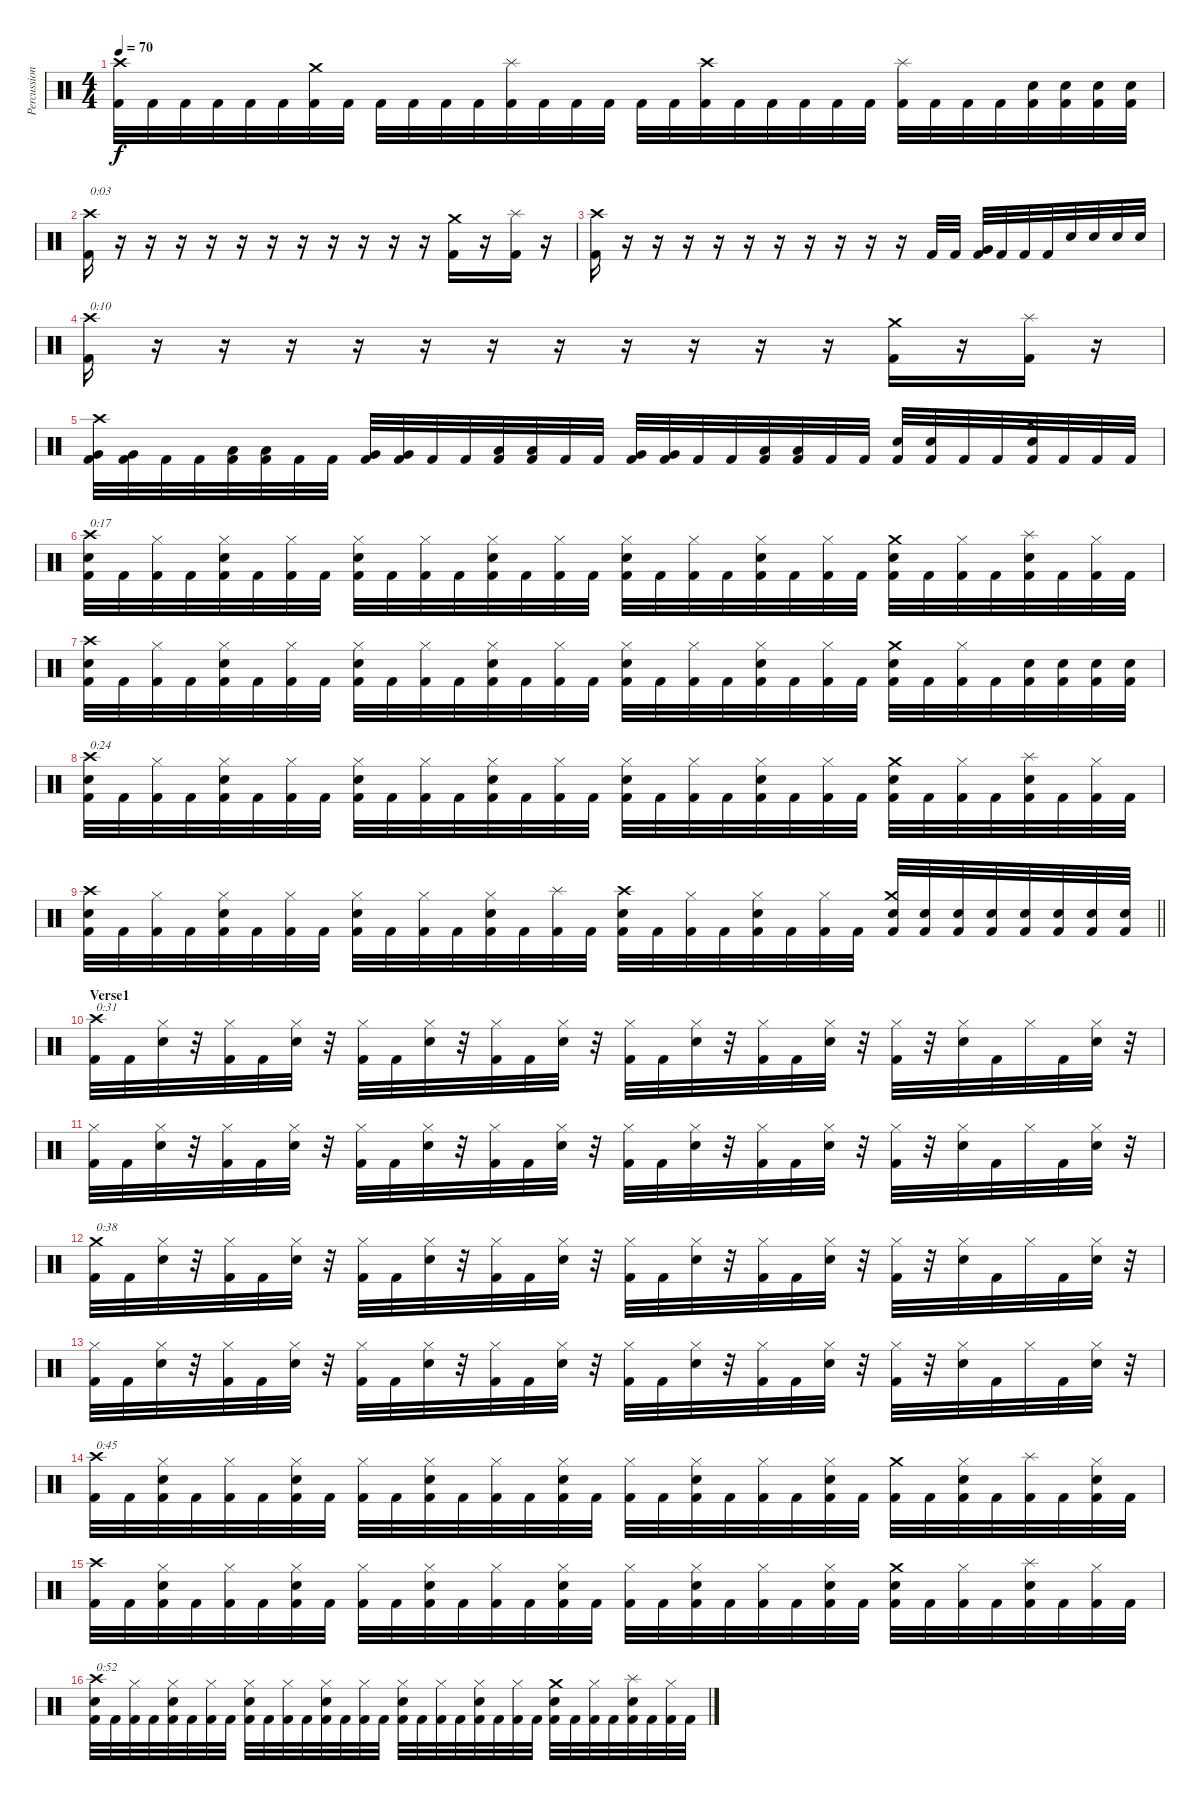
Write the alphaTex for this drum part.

\track ("Percussion" "Percussion") {instrument percussion}
\staff {score}
\articulation defaults
\ts (4 4)
\tempo 70
\clef neutral
\ks c
("Crash high (hit)" "Kick (hit) 2").32{dy f} "Kick (hit) 2".32 "Kick (hit) 2".32 "Kick (hit) 2".32 "Kick (hit) 2".32 "Kick (hit) 2".32 ("Crash medium (hit)" "Kick (hit) 2").32 "Kick (hit) 2".32 "Kick (hit) 2".32 "Kick (hit) 2".32 "Kick (hit) 2".32 "Kick (hit) 2".32 ("Splash (hit)" "Kick (hit) 2").32 "Kick (hit) 2".32 "Kick (hit) 2".32 "Kick (hit) 2".32 "Kick (hit) 2".32 "Kick (hit) 2".32 ("Crash high (hit)" "Kick (hit) 2").32 "Kick (hit) 2".32 "Kick (hit) 2".32 "Kick (hit) 2".32 "Kick (hit) 2".32 "Kick (hit) 2".32 ("Splash (hit)" "Kick (hit) 2").32 "Kick (hit) 2".32 "Kick (hit) 2".32 "Kick (hit) 2".32 ("Snare (hit) 2" "Kick (hit) 2").32 ("Snare (hit) 2" "Kick (hit) 2").32 ("Snare (hit) 2" "Kick (hit) 2").32 ("Snare (hit) 2" "Kick (hit) 2").32 |
("Crash high (hit)" "Kick (hit) 2").16{txt "0:03"} r.16 r.16 r.16 r.16 r.16 r.16 r.16 r.16 r.16 r.16 r.16 ("Crash medium (hit)" "Kick (hit) 2").16 r.16 ("Splash (hit)" "Kick (hit) 2").16 r.16 |
("Crash high (hit)" "Kick (hit) 2").16 r.16 r.16 r.16 r.16 r.16 r.16 r.16 r.16 r.16 r.16 "Kick (hit) 2".32 "Kick (hit) 2".32 ("Very Low Tom (hit)" "Kick (hit) 2").32 "Kick (hit) 2".32 "Kick (hit) 2".32 "Kick (hit) 2".32 "Snare (hit) 2".32 "Snare (hit) 2".32 "Snare (hit) 2".32 "Snare (hit) 2".32 |
("Crash high (hit)" "Kick (hit) 2").16{txt "0:10"} r.16 r.16 r.16 r.16 r.16 r.16 r.16 r.16 r.16 r.16 r.16 ("Crash medium (hit)" "Kick (hit) 2").16 r.16 ("Splash (hit)" "Kick (hit) 2").16 r.16 |
("Crash high (hit)" "Very Low Tom (hit)" "Kick (hit) 2").32 ("Very Low Tom (hit)" "Kick (hit) 2").32 "Kick (hit) 2".32 "Kick (hit) 2".32 ("Low Floor Tom (hit)" "Kick (hit) 2").32 ("Low Floor Tom (hit)" "Kick (hit) 2").32 "Kick (hit) 2".32 "Kick (hit) 2".32 ("Very Low Tom (hit)" "Kick (hit) 2").32 ("Very Low Tom (hit)" "Kick (hit) 2").32 "Kick (hit) 2".32 "Kick (hit) 2".32 ("Low Floor Tom (hit)" "Kick (hit) 2").32 ("Low Floor Tom (hit)" "Kick (hit) 2").32 "Kick (hit) 2".32 "Kick (hit) 2".32 ("Very Low Tom (hit)" "Kick (hit) 2").32 ("Very Low Tom (hit)" "Kick (hit) 2").32 "Kick (hit) 2".32 "Kick (hit) 2".32 ("Low Floor Tom (hit)" "Kick (hit) 2").32 ("Low Floor Tom (hit)" "Kick (hit) 2").32 "Kick (hit) 2".32 "Kick (hit) 2".32 ("Snare (hit) 2" "Kick (hit) 2").32 ("Snare (hit) 2" "Kick (hit) 2").32 "Kick (hit) 2".32 "Kick (hit) 2".32 ("Crash medium (hit)" "Snare (hit) 2" "Kick (hit) 2").32 "Kick (hit) 2".32 "Kick (hit) 2".32 "Kick (hit) 2".32 |
("Crash high (hit)" "Snare (hit) 2" "Kick (hit) 2").32{txt "0:17"} "Kick (hit) 2".32 ("Hi-Hat (closed)" "Kick (hit) 2").32 "Kick (hit) 2".32 ("Hi-Hat (closed)" "Snare (hit) 2" "Kick (hit) 2").32 "Kick (hit) 2".32 ("Hi-Hat (closed)" "Kick (hit) 2").32 "Kick (hit) 2".32 ("Hi-Hat (closed)" "Snare (hit) 2" "Kick (hit) 2").32 "Kick (hit) 2".32 ("Hi-Hat (closed)" "Kick (hit) 2").32 "Kick (hit) 2".32 ("Hi-Hat (closed)" "Snare (hit) 2" "Kick (hit) 2").32 "Kick (hit) 2".32 ("Hi-Hat (closed)" "Kick (hit) 2").32 "Kick (hit) 2".32 ("Hi-Hat (closed)" "Snare (hit) 2" "Kick (hit) 2").32 "Kick (hit) 2".32 ("Hi-Hat (closed)" "Kick (hit) 2").32 "Kick (hit) 2".32 ("Hi-Hat (closed)" "Snare (hit) 2" "Kick (hit) 2").32 "Kick (hit) 2".32 ("Hi-Hat (closed)" "Kick (hit) 2").32 "Kick (hit) 2".32 ("Crash medium (hit)" "Snare (hit) 2" "Kick (hit) 2").32 "Kick (hit) 2".32 ("Hi-Hat (closed)" "Kick (hit) 2").32 "Kick (hit) 2".32 ("Splash (hit)" "Snare (hit) 2" "Kick (hit) 2").32 "Kick (hit) 2".32 ("Hi-Hat (closed)" "Kick (hit) 2").32 "Kick (hit) 2".32 |
("Crash high (hit)" "Snare (hit) 2" "Kick (hit) 2").32 "Kick (hit) 2".32 ("Hi-Hat (closed)" "Kick (hit) 2").32 "Kick (hit) 2".32 ("Hi-Hat (closed)" "Snare (hit) 2" "Kick (hit) 2").32 "Kick (hit) 2".32 ("Hi-Hat (closed)" "Kick (hit) 2").32 "Kick (hit) 2".32 ("Hi-Hat (closed)" "Snare (hit) 2" "Kick (hit) 2").32 "Kick (hit) 2".32 ("Hi-Hat (closed)" "Kick (hit) 2").32 "Kick (hit) 2".32 ("Hi-Hat (closed)" "Snare (hit) 2" "Kick (hit) 2").32 "Kick (hit) 2".32 ("Hi-Hat (closed)" "Kick (hit) 2").32 "Kick (hit) 2".32 ("Hi-Hat (closed)" "Snare (hit) 2" "Kick (hit) 2").32 "Kick (hit) 2".32 ("Hi-Hat (closed)" "Kick (hit) 2").32 "Kick (hit) 2".32 ("Hi-Hat (closed)" "Snare (hit) 2" "Kick (hit) 2").32 "Kick (hit) 2".32 ("Hi-Hat (closed)" "Kick (hit) 2").32 "Kick (hit) 2".32 ("Crash medium (hit)" "Snare (hit) 2" "Kick (hit) 2").32 "Kick (hit) 2".32 ("Hi-Hat (closed)" "Kick (hit) 2").32 "Kick (hit) 2".32 ("Snare (hit) 2" "Kick (hit) 2").32 ("Snare (hit) 2" "Kick (hit) 2").32 ("Snare (hit) 2" "Kick (hit) 2").32 ("Snare (hit) 2" "Kick (hit) 2").32 |
("Crash high (hit)" "Snare (hit) 2" "Kick (hit) 2").32{txt "0:24"} "Kick (hit) 2".32 ("Hi-Hat (closed)" "Kick (hit) 2").32 "Kick (hit) 2".32 ("Hi-Hat (closed)" "Snare (hit) 2" "Kick (hit) 2").32 "Kick (hit) 2".32 ("Hi-Hat (closed)" "Kick (hit) 2").32 "Kick (hit) 2".32 ("Hi-Hat (closed)" "Snare (hit) 2" "Kick (hit) 2").32 "Kick (hit) 2".32 ("Hi-Hat (closed)" "Kick (hit) 2").32 "Kick (hit) 2".32 ("Hi-Hat (closed)" "Snare (hit) 2" "Kick (hit) 2").32 "Kick (hit) 2".32 ("Hi-Hat (closed)" "Kick (hit) 2").32 "Kick (hit) 2".32 ("Hi-Hat (closed)" "Snare (hit) 2" "Kick (hit) 2").32 "Kick (hit) 2".32 ("Hi-Hat (closed)" "Kick (hit) 2").32 "Kick (hit) 2".32 ("Hi-Hat (closed)" "Snare (hit) 2" "Kick (hit) 2").32 "Kick (hit) 2".32 ("Hi-Hat (closed)" "Kick (hit) 2").32 "Kick (hit) 2".32 ("Crash medium (hit)" "Snare (hit) 2" "Kick (hit) 2").32 "Kick (hit) 2".32 ("Hi-Hat (closed)" "Kick (hit) 2").32 "Kick (hit) 2".32 ("Splash (hit)" "Snare (hit) 2" "Kick (hit) 2").32 "Kick (hit) 2".32 ("Hi-Hat (closed)" "Kick (hit) 2").32 "Kick (hit) 2".32 |
\barLineRight lightlight
("Crash high (hit)" "Snare (hit) 2" "Kick (hit) 2").32 "Kick (hit) 2".32 ("Hi-Hat (closed)" "Kick (hit) 2").32 "Kick (hit) 2".32 ("Hi-Hat (closed)" "Snare (hit) 2" "Kick (hit) 2").32 "Kick (hit) 2".32 ("Hi-Hat (closed)" "Kick (hit) 2").32 "Kick (hit) 2".32 ("Hi-Hat (closed)" "Snare (hit) 2" "Kick (hit) 2").32 "Kick (hit) 2".32 ("Hi-Hat (closed)" "Kick (hit) 2").32 "Kick (hit) 2".32 ("Hi-Hat (closed)" "Snare (hit) 2" "Kick (hit) 2").32 "Kick (hit) 2".32 ("Splash (hit)" "Kick (hit) 2").32 "Kick (hit) 2".32 ("Crash high (hit)" "Snare (hit) 2" "Kick (hit) 2").32 "Kick (hit) 2".32 ("Hi-Hat (closed)" "Kick (hit) 2").32 "Kick (hit) 2".32 ("Hi-Hat (closed)" "Snare (hit) 2" "Kick (hit) 2").32 "Kick (hit) 2".32 ("Hi-Hat (closed)" "Kick (hit) 2").32 "Kick (hit) 2".32 ("Crash medium (hit)" "Snare (hit) 2" "Kick (hit) 2").32 ("Snare (hit) 2" "Kick (hit) 2").32 ("Snare (hit) 2" "Kick (hit) 2").32 ("Snare (hit) 2" "Kick (hit) 2").32 ("Snare (hit) 2" "Kick (hit) 2").32 ("Snare (hit) 2" "Kick (hit) 2").32 ("Snare (hit) 2" "Kick (hit) 2").32 ("Snare (hit) 2" "Kick (hit) 2").32 |
\section ("" "Verse1")
("Crash high (hit)" "Kick (hit) 2").32{txt "0:31"} "Kick (hit) 2".32 ("Hi-Hat (closed)" "Snare (hit) 2").32 r.32 ("Hi-Hat (closed)" "Kick (hit) 2").32 "Kick (hit) 2".32 ("Hi-Hat (closed)" "Snare (hit) 2").32 r.32 ("Hi-Hat (closed)" "Kick (hit) 2").32 "Kick (hit) 2".32 ("Hi-Hat (closed)" "Snare (hit) 2").32 r.32 ("Hi-Hat (closed)" "Kick (hit) 2").32 "Kick (hit) 2".32 ("Hi-Hat (closed)" "Snare (hit) 2").32 r.32 ("Hi-Hat (closed)" "Kick (hit) 2").32 "Kick (hit) 2".32 ("Hi-Hat (closed)" "Snare (hit) 2").32 r.32 ("Hi-Hat (closed)" "Kick (hit) 2").32 "Kick (hit) 2".32 ("Hi-Hat (closed)" "Snare (hit) 2").32 r.32 ("Hi-Hat (closed)" "Kick (hit) 2").32 r.32 ("Hi-Hat (closed)" "Snare (hit) 2").32 "Kick (hit) 2".32 "Hi-Hat (closed)".32 "Kick (hit) 2".32 ("Hi-Hat (closed)" "Snare (hit) 2").32 r.32 |
("Hi-Hat (closed)" "Kick (hit) 2").32 "Kick (hit) 2".32 ("Hi-Hat (closed)" "Snare (hit) 2").32 r.32 ("Hi-Hat (closed)" "Kick (hit) 2").32 "Kick (hit) 2".32 ("Hi-Hat (closed)" "Snare (hit) 2").32 r.32 ("Hi-Hat (closed)" "Kick (hit) 2").32 "Kick (hit) 2".32 ("Hi-Hat (closed)" "Snare (hit) 2").32 r.32 ("Hi-Hat (closed)" "Kick (hit) 2").32 "Kick (hit) 2".32 ("Hi-Hat (closed)" "Snare (hit) 2").32 r.32 ("Hi-Hat (closed)" "Kick (hit) 2").32 "Kick (hit) 2".32 ("Hi-Hat (closed)" "Snare (hit) 2").32 r.32 ("Hi-Hat (closed)" "Kick (hit) 2").32 "Kick (hit) 2".32 ("Hi-Hat (closed)" "Snare (hit) 2").32 r.32 ("Hi-Hat (closed)" "Kick (hit) 2").32 r.32 ("Hi-Hat (closed)" "Snare (hit) 2").32 "Kick (hit) 2".32 "Hi-Hat (closed)".32 "Kick (hit) 2".32 ("Hi-Hat (closed)" "Snare (hit) 2").32 r.32 |
("Crash medium (hit)" "Kick (hit) 2").32{txt "0:38"} "Kick (hit) 2".32 ("Hi-Hat (closed)" "Snare (hit) 2").32 r.32 ("Hi-Hat (closed)" "Kick (hit) 2").32 "Kick (hit) 2".32 ("Hi-Hat (closed)" "Snare (hit) 2").32 r.32 ("Hi-Hat (closed)" "Kick (hit) 2").32 "Kick (hit) 2".32 ("Hi-Hat (closed)" "Snare (hit) 2").32 r.32 ("Hi-Hat (closed)" "Kick (hit) 2").32 "Kick (hit) 2".32 ("Hi-Hat (closed)" "Snare (hit) 2").32 r.32 ("Hi-Hat (closed)" "Kick (hit) 2").32 "Kick (hit) 2".32 ("Hi-Hat (closed)" "Snare (hit) 2").32 r.32 ("Hi-Hat (closed)" "Kick (hit) 2").32 "Kick (hit) 2".32 ("Hi-Hat (closed)" "Snare (hit) 2").32 r.32 ("Hi-Hat (closed)" "Kick (hit) 2").32 r.32 ("Hi-Hat (closed)" "Snare (hit) 2").32 "Kick (hit) 2".32 "Hi-Hat (closed)".32 "Kick (hit) 2".32 ("Hi-Hat (closed)" "Snare (hit) 2").32 r.32 |
("Hi-Hat (closed)" "Kick (hit) 2").32 "Kick (hit) 2".32 ("Hi-Hat (closed)" "Snare (hit) 2").32 r.32 ("Hi-Hat (closed)" "Kick (hit) 2").32 "Kick (hit) 2".32 ("Hi-Hat (closed)" "Snare (hit) 2").32 r.32 ("Hi-Hat (closed)" "Kick (hit) 2").32 "Kick (hit) 2".32 ("Hi-Hat (closed)" "Snare (hit) 2").32 r.32 ("Hi-Hat (closed)" "Kick (hit) 2").32 "Kick (hit) 2".32 ("Hi-Hat (closed)" "Snare (hit) 2").32 r.32 ("Hi-Hat (closed)" "Kick (hit) 2").32 "Kick (hit) 2".32 ("Hi-Hat (closed)" "Snare (hit) 2").32 r.32 ("Hi-Hat (closed)" "Kick (hit) 2").32 "Kick (hit) 2".32 ("Hi-Hat (closed)" "Snare (hit) 2").32 r.32 ("Hi-Hat (closed)" "Kick (hit) 2").32 r.32 ("Hi-Hat (closed)" "Snare (hit) 2").32 "Kick (hit) 2".32 "Hi-Hat (closed)".32 "Kick (hit) 2".32 ("Hi-Hat (closed)" "Snare (hit) 2").32 r.32 |
("Crash high (hit)" "Kick (hit) 2").32{txt "0:45"} "Kick (hit) 2".32 ("Hi-Hat (closed)" "Snare (hit) 2" "Kick (hit) 2").32 "Kick (hit) 2".32 ("Hi-Hat (closed)" "Kick (hit) 2").32 "Kick (hit) 2".32 ("Hi-Hat (closed)" "Snare (hit) 2" "Kick (hit) 2").32 "Kick (hit) 2".32 ("Hi-Hat (closed)" "Kick (hit) 2").32 "Kick (hit) 2".32 ("Hi-Hat (closed)" "Snare (hit) 2" "Kick (hit) 2").32 "Kick (hit) 2".32 ("Hi-Hat (closed)" "Kick (hit) 2").32 "Kick (hit) 2".32 ("Hi-Hat (closed)" "Snare (hit) 2" "Kick (hit) 2").32 "Kick (hit) 2".32 ("Hi-Hat (closed)" "Kick (hit) 2").32 "Kick (hit) 2".32 ("Hi-Hat (closed)" "Snare (hit) 2" "Kick (hit) 2").32 "Kick (hit) 2".32 ("Hi-Hat (closed)" "Kick (hit) 2").32 "Kick (hit) 2".32 ("Hi-Hat (closed)" "Snare (hit) 2" "Kick (hit) 2").32 "Kick (hit) 2".32 ("Crash medium (hit)" "Kick (hit) 2").32 "Kick (hit) 2".32 ("Hi-Hat (closed)" "Snare (hit) 2" "Kick (hit) 2").32 "Kick (hit) 2".32 ("Splash (hit)" "Kick (hit) 2").32 "Kick (hit) 2".32 ("Hi-Hat (closed)" "Snare (hit) 2" "Kick (hit) 2").32 "Kick (hit) 2".32 |
("Crash high (hit)" "Kick (hit) 2").32 "Kick (hit) 2".32 ("Hi-Hat (closed)" "Snare (hit) 2" "Kick (hit) 2").32 "Kick (hit) 2".32 ("Hi-Hat (closed)" "Kick (hit) 2").32 "Kick (hit) 2".32 ("Hi-Hat (closed)" "Snare (hit) 2" "Kick (hit) 2").32 "Kick (hit) 2".32 ("Hi-Hat (closed)" "Kick (hit) 2").32 "Kick (hit) 2".32 ("Hi-Hat (closed)" "Snare (hit) 2" "Kick (hit) 2").32 "Kick (hit) 2".32 ("Hi-Hat (closed)" "Kick (hit) 2").32 "Kick (hit) 2".32 ("Hi-Hat (closed)" "Snare (hit) 2" "Kick (hit) 2").32 "Kick (hit) 2".32 ("Hi-Hat (closed)" "Kick (hit) 2").32 "Kick (hit) 2".32 ("Hi-Hat (closed)" "Snare (hit) 2" "Kick (hit) 2").32 "Kick (hit) 2".32 ("Hi-Hat (closed)" "Kick (hit) 2").32 "Kick (hit) 2".32 ("Hi-Hat (closed)" "Snare (hit) 2" "Kick (hit) 2").32 "Kick (hit) 2".32 ("Crash medium (hit)" "Snare (hit) 2" "Kick (hit) 2").32 "Kick (hit) 2".32 ("Hi-Hat (closed)" "Kick (hit) 2").32 "Kick (hit) 2".32 ("Splash (hit)" "Snare (hit) 2" "Kick (hit) 2").32 "Kick (hit) 2".32 ("Hi-Hat (closed)" "Kick (hit) 2").32 "Kick (hit) 2".32 |
("Crash high (hit)" "Snare (hit) 2" "Kick (hit) 2").32{txt "0:52"} "Kick (hit) 2".32 ("Hi-Hat (closed)" "Kick (hit) 2").32 "Kick (hit) 2".32 ("Hi-Hat (closed)" "Snare (hit) 2" "Kick (hit) 2").32 "Kick (hit) 2".32 ("Hi-Hat (closed)" "Kick (hit) 2").32 "Kick (hit) 2".32 ("Hi-Hat (closed)" "Snare (hit) 2" "Kick (hit) 2").32 "Kick (hit) 2".32 ("Hi-Hat (closed)" "Kick (hit) 2").32 "Kick (hit) 2".32 ("Hi-Hat (closed)" "Snare (hit) 2" "Kick (hit) 2").32 "Kick (hit) 2".32 ("Hi-Hat (closed)" "Kick (hit) 2").32 "Kick (hit) 2".32 ("Hi-Hat (closed)" "Snare (hit) 2" "Kick (hit) 2").32 "Kick (hit) 2".32 ("Hi-Hat (closed)" "Kick (hit) 2").32 "Kick (hit) 2".32 ("Hi-Hat (closed)" "Snare (hit) 2" "Kick (hit) 2").32 "Kick (hit) 2".32 ("Hi-Hat (closed)" "Kick (hit) 2").32 "Kick (hit) 2".32 ("Crash medium (hit)" "Snare (hit) 2" "Kick (hit) 2").32 "Kick (hit) 2".32 ("Hi-Hat (closed)" "Kick (hit) 2").32 "Kick (hit) 2".32 ("Splash (hit)" "Snare (hit) 2" "Kick (hit) 2").32 "Kick (hit) 2".32 ("Hi-Hat (closed)" "Kick (hit) 2").32 "Kick (hit) 2".32
